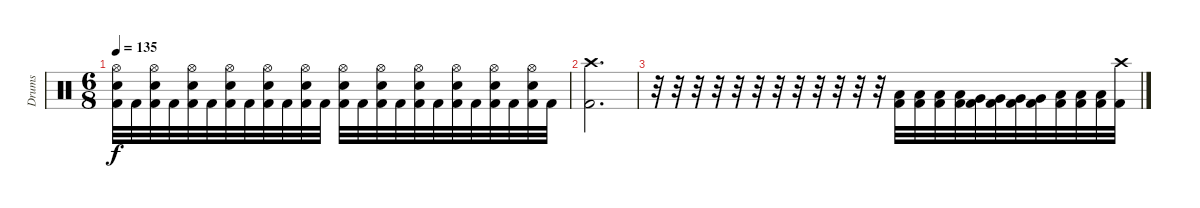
\track ("Drums" "Drums") {instrument percussion}
\staff {score}
\articulation defaults
\ts (6 8)
\tempo 135
\clef neutral
\ks c
("Hi-Hat (open)" "Electric Snare (hit)" "Kick (hit) 2").32{dy f} "Kick (hit) 2".32 ("Hi-Hat (open)" "Electric Snare (hit)" "Kick (hit) 2").32 "Kick (hit) 2".32 ("Hi-Hat (open)" "Electric Snare (hit)" "Kick (hit) 2").32 "Kick (hit) 2".32 ("Hi-Hat (open)" "Electric Snare (hit)" "Kick (hit) 2").32 "Kick (hit) 2".32 ("Hi-Hat (open)" "Electric Snare (hit)" "Kick (hit) 2").32 "Kick (hit) 2".32 ("Hi-Hat (open)" "Electric Snare (hit)" "Kick (hit) 2").32 "Kick (hit) 2".32 ("Hi-Hat (open)" "Electric Snare (hit)" "Kick (hit) 2").32 "Kick (hit) 2".32 ("Hi-Hat (open)" "Electric Snare (hit)" "Kick (hit) 2").32 "Kick (hit) 2".32 ("Hi-Hat (open)" "Electric Snare (hit)" "Kick (hit) 2").32 "Kick (hit) 2".32 ("Hi-Hat (open)" "Electric Snare (hit)" "Kick (hit) 2").32 "Kick (hit) 2".32 ("Hi-Hat (open)" "Electric Snare (hit)" "Kick (hit) 2").32 "Kick (hit) 2".32 ("Hi-Hat (open)" "Electric Snare (hit)" "Kick (hit) 2").32 "Kick (hit) 2".32 |
("Crash high (hit)" "Kick (hit) 2").2{d} |
r.32 r.32 r.32 r.32 r.32 r.32 r.32 r.32 r.32 r.32 r.32 r.32 ("Low Tom (hit)" "Kick (hit) 2").32 ("Low Tom (hit)" "Kick (hit) 2").32 ("Low Tom (hit)" "Kick (hit) 2").32 ("Low Tom (hit)" "Kick (hit) 2").32 ("Very Low Tom (hit)" "Kick (hit) 2").32 ("Very Low Tom (hit)" "Kick (hit) 2").32 ("Very Low Tom (hit)" "Kick (hit) 2").32 ("Very Low Tom (hit)" "Kick (hit) 2").32 ("Low Floor Tom (hit)" "Kick (hit) 2").32 ("Low Floor Tom (hit)" "Kick (hit) 2").32 ("Low Floor Tom (hit)" "Kick (hit) 2").32 ("Crash high (hit)" "Kick (hit) 2").32
